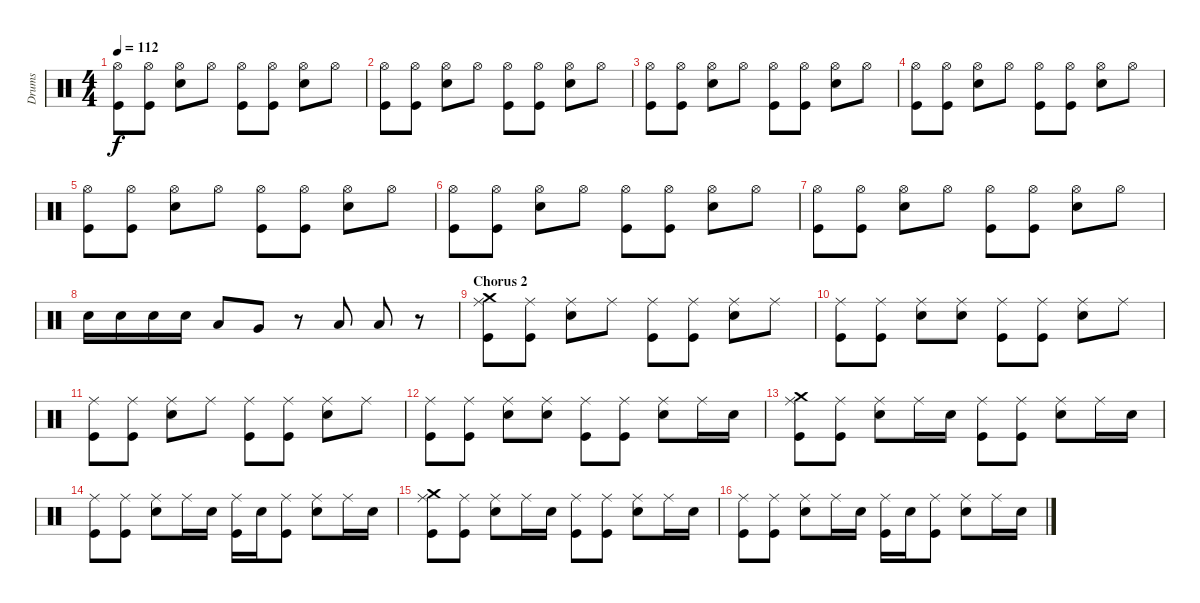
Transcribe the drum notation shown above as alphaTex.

\track ("Drums" "Drums") {instrument percussion}
\staff {score}
\articulation defaults
\ts (4 4)
\tempo 112
\clef neutral
\ks c
("Hi-Hat (open)" "Kick (hit)").8{dy f} ("Hi-Hat (open)" "Kick (hit)").8 ("Hi-Hat (open)" "Snare (hit) 2").8 "Hi-Hat (open)".8 ("Hi-Hat (open)" "Kick (hit)").8 ("Hi-Hat (open)" "Kick (hit)").8 ("Hi-Hat (open)" "Snare (hit) 2").8 "Hi-Hat (open)".8 |
("Hi-Hat (open)" "Kick (hit)").8 ("Hi-Hat (open)" "Kick (hit)").8 ("Hi-Hat (open)" "Snare (hit) 2").8 "Hi-Hat (open)".8 ("Hi-Hat (open)" "Kick (hit)").8 ("Hi-Hat (open)" "Kick (hit)").8 ("Hi-Hat (open)" "Snare (hit) 2").8 "Hi-Hat (open)".8 |
("Hi-Hat (open)" "Kick (hit)").8 ("Hi-Hat (open)" "Kick (hit)").8 ("Hi-Hat (open)" "Snare (hit) 2").8 "Hi-Hat (open)".8 ("Hi-Hat (open)" "Kick (hit)").8 ("Hi-Hat (open)" "Kick (hit)").8 ("Hi-Hat (open)" "Snare (hit) 2").8 "Hi-Hat (open)".8 |
("Hi-Hat (open)" "Kick (hit)").8 ("Hi-Hat (open)" "Kick (hit)").8 ("Hi-Hat (open)" "Snare (hit) 2").8 "Hi-Hat (open)".8 ("Hi-Hat (open)" "Kick (hit)").8 ("Hi-Hat (open)" "Kick (hit)").8 ("Hi-Hat (open)" "Snare (hit) 2").8 "Hi-Hat (open)".8 |
\section ("" "")
("Hi-Hat (open)" "Kick (hit)").8 ("Hi-Hat (open)" "Kick (hit)").8 ("Hi-Hat (open)" "Snare (hit) 2").8 "Hi-Hat (open)".8 ("Hi-Hat (open)" "Kick (hit)").8 ("Hi-Hat (open)" "Kick (hit)").8 ("Hi-Hat (open)" "Snare (hit) 2").8 "Hi-Hat (open)".8 |
("Hi-Hat (open)" "Kick (hit)").8 ("Hi-Hat (open)" "Kick (hit)").8 ("Hi-Hat (open)" "Snare (hit) 2").8 "Hi-Hat (open)".8 ("Hi-Hat (open)" "Kick (hit)").8 ("Hi-Hat (open)" "Kick (hit)").8 ("Hi-Hat (open)" "Snare (hit) 2").8 "Hi-Hat (open)".8 |
("Hi-Hat (open)" "Kick (hit)").8 ("Hi-Hat (open)" "Kick (hit)").8 ("Hi-Hat (open)" "Snare (hit) 2").8 "Hi-Hat (open)".8 ("Hi-Hat (open)" "Kick (hit)").8 ("Hi-Hat (open)" "Kick (hit)").8 ("Hi-Hat (open)" "Snare (hit) 2").8 "Hi-Hat (open)".8 |
"Snare (hit) 2".16 "Snare (hit) 2".16 "Snare (hit) 2".16 "Snare (hit) 2".16 "Low Tom (hit)".8 "Very Low Tom (hit)".8 r.8 "Low Floor Tom (hit)".8 "Low Floor Tom (hit)".8 r.8 |
\section ("" "Chorus 2")
("Ride (middle)" "Crash medium (hit)" "Kick (hit)").8 ("Ride (middle)" "Kick (hit)").8 ("Ride (middle)" "Snare (hit) 2").8 "Ride (middle)".8 ("Ride (middle)" "Kick (hit)").8 ("Ride (middle)" "Kick (hit)").8 ("Ride (middle)" "Snare (hit) 2").8 "Ride (middle)".8 |
("Ride (middle)" "Kick (hit)").8 ("Ride (middle)" "Kick (hit)").8 ("Ride (middle)" "Snare (hit) 2").8 ("Ride (middle)" "Snare (hit) 2").8 ("Ride (middle)" "Kick (hit)").8 ("Ride (middle)" "Kick (hit)").8 ("Ride (middle)" "Snare (hit) 2").8 "Ride (middle)".8 |
("Ride (middle)" "Kick (hit)").8 ("Ride (middle)" "Kick (hit)").8 ("Ride (middle)" "Snare (hit) 2").8 "Ride (middle)".8 ("Ride (middle)" "Kick (hit)").8 ("Ride (middle)" "Kick (hit)").8 ("Ride (middle)" "Snare (hit) 2").8 "Ride (middle)".8 |
("Ride (middle)" "Kick (hit)").8 ("Ride (middle)" "Kick (hit)").8 ("Ride (middle)" "Snare (hit) 2").8 ("Ride (middle)" "Snare (hit) 2").8 ("Ride (middle)" "Kick (hit)").8 ("Ride (middle)" "Kick (hit)").8 ("Ride (middle)" "Snare (hit) 2").8 "Ride (middle)".16 "Snare (hit) 2".16 |
\section ("" "")
("Ride (middle)" "Crash medium (hit)" "Kick (hit)").8 ("Ride (middle)" "Kick (hit)").8 ("Ride (middle)" "Snare (hit) 2").8 "Ride (middle)".16 "Snare (hit) 2".16 ("Ride (middle)" "Kick (hit)").8 ("Ride (middle)" "Kick (hit)").8 ("Ride (middle)" "Snare (hit) 2").8 "Ride (middle)".16 "Snare (hit) 2".16 |
("Ride (middle)" "Kick (hit)").8 ("Ride (middle)" "Kick (hit)").8 ("Ride (middle)" "Snare (hit) 2").8 "Ride (middle)".16 "Snare (hit) 2".16 ("Ride (middle)" "Kick (hit)").16 "Snare (hit) 2".16 ("Ride (middle)" "Kick (hit)").8 ("Ride (middle)" "Snare (hit) 2").8 "Ride (middle)".16 "Snare (hit) 2".16 |
("Ride (middle)" "Crash medium (hit)" "Kick (hit)").8 ("Ride (middle)" "Kick (hit)").8 ("Ride (middle)" "Snare (hit) 2").8 "Ride (middle)".16 "Snare (hit) 2".16 ("Ride (middle)" "Kick (hit)").8 ("Ride (middle)" "Kick (hit)").8 ("Ride (middle)" "Snare (hit) 2").8 "Ride (middle)".16 "Snare (hit) 2".16 |
("Ride (middle)" "Kick (hit)").8 ("Ride (middle)" "Kick (hit)").8 ("Ride (middle)" "Snare (hit) 2").8 "Ride (middle)".16 "Snare (hit) 2".16 ("Ride (middle)" "Kick (hit)").16 "Snare (hit) 2".16 ("Ride (middle)" "Kick (hit)").8 ("Ride (middle)" "Snare (hit) 2").8 "Ride (middle)".16 "Snare (hit) 2".16
